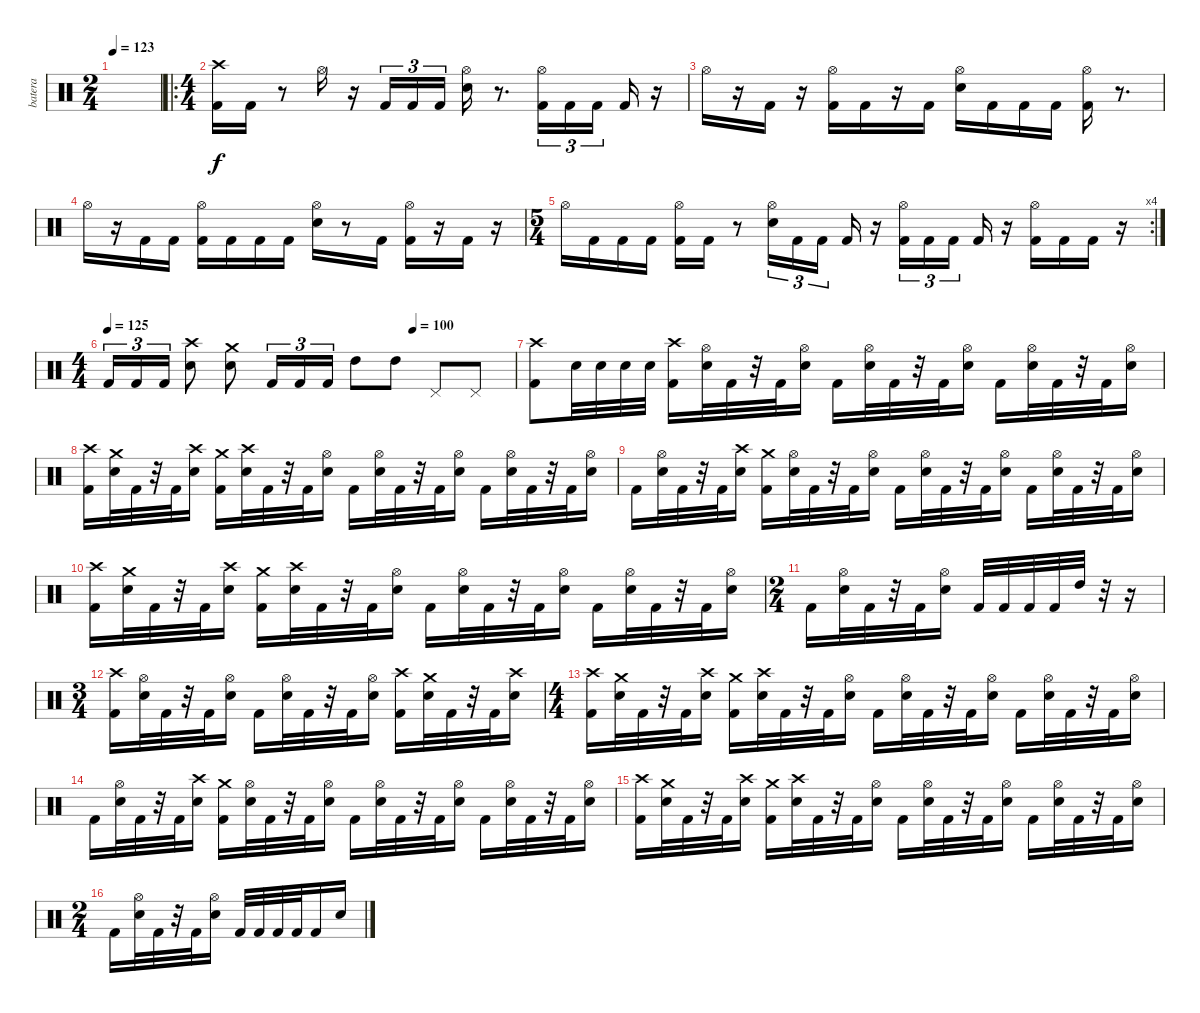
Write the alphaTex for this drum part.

\track ("batera" "batera") {instrument percussion}
\staff {score}
\articulation defaults
\ts (2 4)
\tempo 123
\clef neutral
\ks c
|
\ro
\ts (4 4)
("Crash high (hit)" "Kick (hit) 2").16 "Kick (hit) 2".16 r.8 "Hi-Hat (open)".16 r.16 "Kick (hit) 2".16{tu (3 2)} "Kick (hit) 2".16{tu (3 2)} "Kick (hit) 2".16{tu (3 2)} ("Hi-Hat (open)" "Electric Snare (hit)").16 r.8{d} ("Hi-Hat (open)" "Kick (hit) 2").16{tu (3 2)} "Kick (hit) 2".16{tu (3 2)} "Kick (hit) 2".16{tu (3 2)} "Kick (hit) 2".16 r.16 |
"Hi-Hat (open)".16 r.16 "Kick (hit) 2".16 r.16 ("Hi-Hat (open)" "Kick (hit) 2").16 "Kick (hit) 2".16 r.16 "Kick (hit) 2".16 ("Hi-Hat (open)" "Electric Snare (hit)").16 "Kick (hit) 2".16 "Kick (hit) 2".16 "Kick (hit) 2".16 ("Hi-Hat (open)" "Kick (hit) 2").16 r.8{d} |
"Hi-Hat (open)".16 r.16 "Kick (hit) 2".16 "Kick (hit) 2".16 ("Hi-Hat (open)" "Kick (hit) 2").16 "Kick (hit) 2".16 "Kick (hit) 2".16 "Kick (hit) 2".16 ("Hi-Hat (open)" "Electric Snare (hit)").16 r.8 "Kick (hit) 2".16 ("Hi-Hat (open)" "Kick (hit) 2").16 r.16 "Kick (hit) 2".16 r.16 |
\rc 4
\ts (5 4)
"Hi-Hat (open)".16 "Kick (hit) 2".16 "Kick (hit) 2".16 "Kick (hit) 2".16 ("Hi-Hat (open)" "Kick (hit) 2").16 "Kick (hit) 2".16 r.8 ("Hi-Hat (open)" "Electric Snare (hit)").16{tu (3 2)} "Kick (hit) 2".16{tu (3 2)} "Kick (hit) 2".16{tu (3 2)} "Kick (hit) 2".16 r.16 ("Hi-Hat (open)" "Kick (hit) 2").16{tu (3 2)} "Kick (hit) 2".16{tu (3 2)} "Kick (hit) 2".16{tu (3 2)} "Kick (hit) 2".16 r.16 ("Hi-Hat (open)" "Kick (hit) 2").16 "Kick (hit) 2".16 "Kick (hit) 2".16 r.16 |
\ts (4 4)
\tempo 125
\tempo (100 0.75)
"Kick (hit) 2".16{tu (3 2)} "Kick (hit) 2".16{tu (3 2)} "Kick (hit) 2".16{tu (3 2)} ("Crash high (hit)" "Electric Snare (hit)").8 ("Crash medium (hit)" "Electric Snare (hit)").8 "Kick (hit) 2".16{tu (3 2)} "Kick (hit) 2".16{tu (3 2)} "Kick (hit) 2".16{tu (3 2)} "High Tom (hit)".8 "High Tom (hit)".8 "Pedal Hi-Hat (hit)".8 "Pedal Hi-Hat (hit)".8 |
("Crash high (hit)" "Kick (hit) 2").8 "Electric Snare (hit)".32 "Electric Snare (hit)".32 "Electric Snare (hit)".32 "Electric Snare (hit)".32 ("Crash high (hit)" "Kick (hit) 2").16 ("Hi-Hat (open)" "Electric Snare (hit)").32 "Kick (hit) 2".32 r.32 "Kick (hit) 2".32 ("Hi-Hat (open)" "Electric Snare (hit)").16 "Kick (hit) 2".16 ("Hi-Hat (open)" "Electric Snare (hit)").32 "Kick (hit) 2".32 r.32 "Kick (hit) 2".32 ("Hi-Hat (open)" "Electric Snare (hit)").16 "Kick (hit) 2".16 ("Hi-Hat (open)" "Electric Snare (hit)").32 "Kick (hit) 2".32 r.32 "Kick (hit) 2".32 ("Hi-Hat (open)" "Electric Snare (hit)").16 |
("Crash high (hit)" "Kick (hit) 2").16 ("Crash medium (hit)" "Electric Snare (hit)").32 "Kick (hit) 2".32 r.32 "Kick (hit) 2".32 ("Crash high (hit)" "Electric Snare (hit)").16 ("Crash medium (hit)" "Kick (hit) 2").16 ("Crash high (hit)" "Electric Snare (hit)").32 "Kick (hit) 2".32 r.32 "Kick (hit) 2".32 ("Hi-Hat (open)" "Electric Snare (hit)").16 "Kick (hit) 2".16 ("Hi-Hat (open)" "Electric Snare (hit)").32 "Kick (hit) 2".32 r.32 "Kick (hit) 2".32 ("Hi-Hat (open)" "Electric Snare (hit)").16 "Kick (hit) 2".16 ("Hi-Hat (open)" "Electric Snare (hit)").32 "Kick (hit) 2".32 r.32 "Kick (hit) 2".32 ("Hi-Hat (open)" "Electric Snare (hit)").16 |
"Kick (hit) 2".16 ("Hi-Hat (open)" "Electric Snare (hit)").32 "Kick (hit) 2".32 r.32 "Kick (hit) 2".32 ("Crash high (hit)" "Electric Snare (hit)").16 ("Crash medium (hit)" "Kick (hit) 2").16 ("Hi-Hat (open)" "Electric Snare (hit)").32 "Kick (hit) 2".32 r.32 "Kick (hit) 2".32 ("Hi-Hat (open)" "Electric Snare (hit)").16 "Kick (hit) 2".16 ("Hi-Hat (open)" "Electric Snare (hit)").32 "Kick (hit) 2".32 r.32 "Kick (hit) 2".32 ("Hi-Hat (open)" "Electric Snare (hit)").16 "Kick (hit) 2".16 ("Hi-Hat (open)" "Electric Snare (hit)").32 "Kick (hit) 2".32 r.32 "Kick (hit) 2".32 ("Hi-Hat (open)" "Electric Snare (hit)").16 |
("Crash high (hit)" "Kick (hit) 2").16 ("Crash medium (hit)" "Electric Snare (hit)").32 "Kick (hit) 2".32 r.32 "Kick (hit) 2".32 ("Crash high (hit)" "Electric Snare (hit)").16 ("Crash medium (hit)" "Kick (hit) 2").16 ("Crash high (hit)" "Electric Snare (hit)").32 "Kick (hit) 2".32 r.32 "Kick (hit) 2".32 ("Hi-Hat (open)" "Electric Snare (hit)").16 "Kick (hit) 2".16 ("Hi-Hat (open)" "Electric Snare (hit)").32 "Kick (hit) 2".32 r.32 "Kick (hit) 2".32 ("Hi-Hat (open)" "Electric Snare (hit)").16 "Kick (hit) 2".16 ("Hi-Hat (open)" "Electric Snare (hit)").32 "Kick (hit) 2".32 r.32 "Kick (hit) 2".32 ("Hi-Hat (open)" "Electric Snare (hit)").16 |
\ts (2 4)
"Kick (hit) 2".16 ("Hi-Hat (open)" "Electric Snare (hit)").32 "Kick (hit) 2".32 r.32 "Kick (hit) 2".32 ("Hi-Hat (open)" "Electric Snare (hit)").16 "Kick (hit) 2".32 "Kick (hit) 2".32 "Kick (hit) 2".32 "Kick (hit) 2".32 "High Tom (hit)".32 r.32 r.16 |
\ts (3 4)
("Crash high (hit)" "Kick (hit) 2").16 ("Hi-Hat (open)" "Electric Snare (hit)").32 "Kick (hit) 2".32 r.32 "Kick (hit) 2".32 ("Hi-Hat (open)" "Electric Snare (hit)").16 "Kick (hit) 2".16 ("Hi-Hat (open)" "Electric Snare (hit)").32 "Kick (hit) 2".32 r.32 "Kick (hit) 2".32 ("Hi-Hat (open)" "Electric Snare (hit)").16 ("Crash high (hit)" "Kick (hit) 2").16 ("Crash medium (hit)" "Electric Snare (hit)").32 "Kick (hit) 2".32 r.32 "Kick (hit) 2".32 ("Crash high (hit)" "Electric Snare (hit)").16 |
\ts (4 4)
("Crash high (hit)" "Kick (hit) 2").16 ("Crash medium (hit)" "Electric Snare (hit)").32 "Kick (hit) 2".32 r.32 "Kick (hit) 2".32 ("Crash high (hit)" "Electric Snare (hit)").16 ("Crash medium (hit)" "Kick (hit) 2").16 ("Crash high (hit)" "Electric Snare (hit)").32 "Kick (hit) 2".32 r.32 "Kick (hit) 2".32 ("Hi-Hat (open)" "Electric Snare (hit)").16 "Kick (hit) 2".16 ("Hi-Hat (open)" "Electric Snare (hit)").32 "Kick (hit) 2".32 r.32 "Kick (hit) 2".32 ("Hi-Hat (open)" "Electric Snare (hit)").16 "Kick (hit) 2".16 ("Hi-Hat (open)" "Electric Snare (hit)").32 "Kick (hit) 2".32 r.32 "Kick (hit) 2".32 ("Hi-Hat (open)" "Electric Snare (hit)").16 |
"Kick (hit) 2".16 ("Hi-Hat (open)" "Electric Snare (hit)").32 "Kick (hit) 2".32 r.32 "Kick (hit) 2".32 ("Crash high (hit)" "Electric Snare (hit)").16 ("Crash medium (hit)" "Kick (hit) 2").16 ("Hi-Hat (open)" "Electric Snare (hit)").32 "Kick (hit) 2".32 r.32 "Kick (hit) 2".32 ("Hi-Hat (open)" "Electric Snare (hit)").16 "Kick (hit) 2".16 ("Hi-Hat (open)" "Electric Snare (hit)").32 "Kick (hit) 2".32 r.32 "Kick (hit) 2".32 ("Hi-Hat (open)" "Electric Snare (hit)").16 "Kick (hit) 2".16 ("Hi-Hat (open)" "Electric Snare (hit)").32 "Kick (hit) 2".32 r.32 "Kick (hit) 2".32 ("Hi-Hat (open)" "Electric Snare (hit)").16 |
("Crash high (hit)" "Kick (hit) 2").16 ("Crash medium (hit)" "Electric Snare (hit)").32 "Kick (hit) 2".32 r.32 "Kick (hit) 2".32 ("Crash high (hit)" "Electric Snare (hit)").16 ("Crash medium (hit)" "Kick (hit) 2").16 ("Crash high (hit)" "Electric Snare (hit)").32 "Kick (hit) 2".32 r.32 "Kick (hit) 2".32 ("Hi-Hat (open)" "Electric Snare (hit)").16 "Kick (hit) 2".16 ("Hi-Hat (open)" "Electric Snare (hit)").32 "Kick (hit) 2".32 r.32 "Kick (hit) 2".32 ("Hi-Hat (open)" "Electric Snare (hit)").16 "Kick (hit) 2".16 ("Hi-Hat (open)" "Electric Snare (hit)").32 "Kick (hit) 2".32 r.32 "Kick (hit) 2".32 ("Hi-Hat (open)" "Electric Snare (hit)").16 |
\ts (2 4)
"Kick (hit) 2".16 ("Hi-Hat (open)" "Electric Snare (hit)").32 "Kick (hit) 2".32 r.32 "Kick (hit) 2".32 ("Hi-Hat (open)" "Electric Snare (hit)").16 "Kick (hit) 2".32 "Kick (hit) 2".32 "Kick (hit) 2".32 "Kick (hit) 2".32 "Kick (hit) 2".16 "Electric Snare (hit)".16
